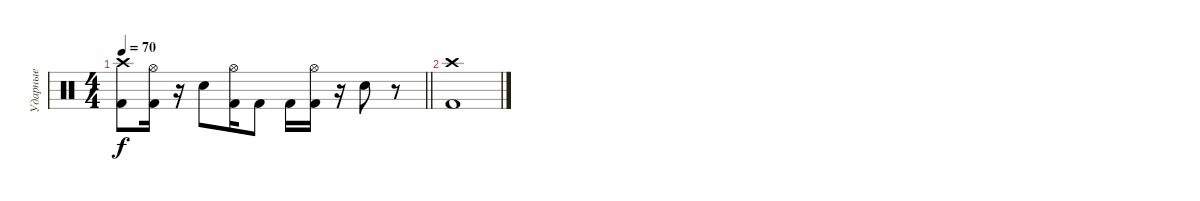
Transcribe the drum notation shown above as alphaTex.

\track ("Ударные" "Ударные") {instrument percussion}
\staff {score}
\articulation defaults
\ts (4 4)
\tempo 70
\clef neutral
\barLineRight lightlight
\ks c
("Kick (hit) 2" "Crash high (hit)").8{dy f} ("Kick (hit) 2" "Hi-Hat (open)").16 r.16 "Snare (hit) 2".8 ("Kick (hit) 2" "Hi-Hat (open)").16 "Kick (hit) 2".8 "Kick (hit) 2".16 ("Kick (hit) 2" "Hi-Hat (open)").16 r.16 "Snare (hit) 2".8 r.8 |
("Crash high (hit)" "Kick (hit) 2").1
